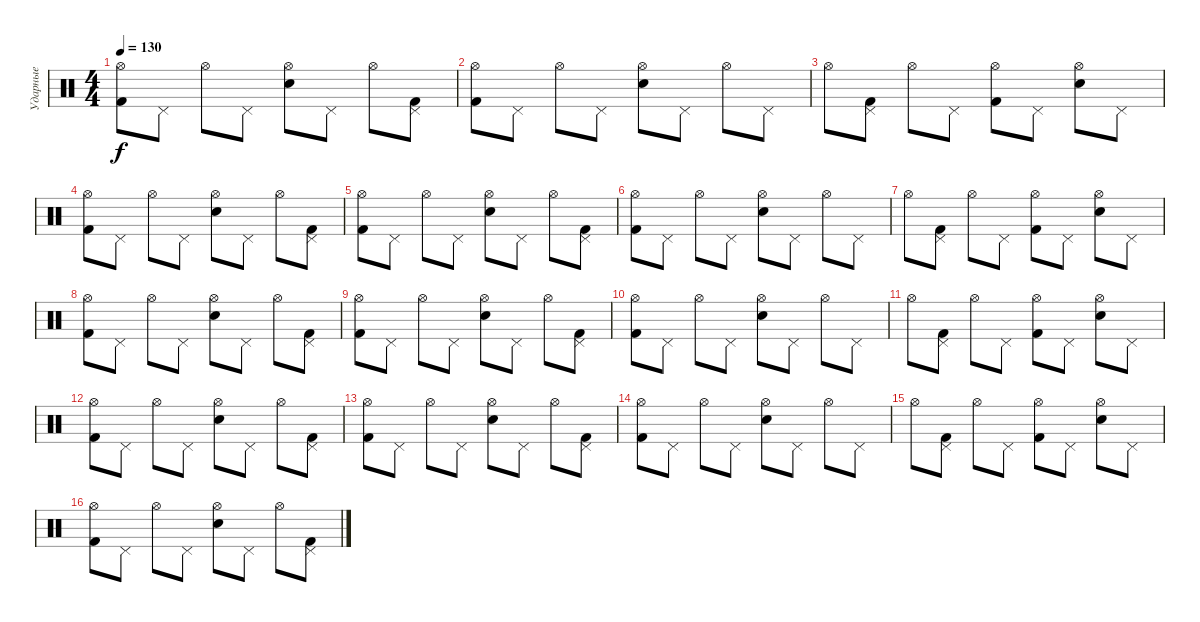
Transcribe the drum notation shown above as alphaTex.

\track ("Ударные" "Ударные") {instrument percussion}
\staff
\articulation defaults
\ts (4 4)
\tempo 130
\clef neutral
\ks c
("Kick (hit) 2" "Hi-Hat (open)").8{dy f} "Pedal Hi-Hat (hit)".8 "Hi-Hat (open)".8 "Pedal Hi-Hat (hit)".8 ("Snare (hit) 2" "Hi-Hat (open)").8 "Pedal Hi-Hat (hit)".8 "Hi-Hat (open)".8 ("Kick (hit) 2" "Pedal Hi-Hat (hit)").8 |
("Kick (hit) 2" "Hi-Hat (open)").8 "Pedal Hi-Hat (hit)".8 "Hi-Hat (open)".8 "Pedal Hi-Hat (hit)".8 ("Snare (hit) 2" "Hi-Hat (open)").8 "Pedal Hi-Hat (hit)".8 "Hi-Hat (open)".8 "Pedal Hi-Hat (hit)".8 |
"Hi-Hat (open)".8 ("Kick (hit) 2" "Pedal Hi-Hat (hit)").8 "Hi-Hat (open)".8 "Pedal Hi-Hat (hit)".8 ("Kick (hit) 2" "Hi-Hat (open)").8 "Pedal Hi-Hat (hit)".8 ("Snare (hit) 2" "Hi-Hat (open)").8 "Pedal Hi-Hat (hit)".8 |
("Kick (hit) 2" "Hi-Hat (open)").8 "Pedal Hi-Hat (hit)".8 "Hi-Hat (open)".8 "Pedal Hi-Hat (hit)".8 ("Snare (hit) 2" "Hi-Hat (open)").8 "Pedal Hi-Hat (hit)".8 "Hi-Hat (open)".8 ("Kick (hit) 2" "Pedal Hi-Hat (hit)").8 |
("Kick (hit) 2" "Hi-Hat (open)").8 "Pedal Hi-Hat (hit)".8 "Hi-Hat (open)".8 "Pedal Hi-Hat (hit)".8 ("Snare (hit) 2" "Hi-Hat (open)").8 "Pedal Hi-Hat (hit)".8 "Hi-Hat (open)".8 ("Kick (hit) 2" "Pedal Hi-Hat (hit)").8 |
("Kick (hit) 2" "Hi-Hat (open)").8 "Pedal Hi-Hat (hit)".8 "Hi-Hat (open)".8 "Pedal Hi-Hat (hit)".8 ("Snare (hit) 2" "Hi-Hat (open)").8 "Pedal Hi-Hat (hit)".8 "Hi-Hat (open)".8 "Pedal Hi-Hat (hit)".8 |
"Hi-Hat (open)".8 ("Kick (hit) 2" "Pedal Hi-Hat (hit)").8 "Hi-Hat (open)".8 "Pedal Hi-Hat (hit)".8 ("Kick (hit) 2" "Hi-Hat (open)").8 "Pedal Hi-Hat (hit)".8 ("Snare (hit) 2" "Hi-Hat (open)").8 "Pedal Hi-Hat (hit)".8 |
("Kick (hit) 2" "Hi-Hat (open)").8 "Pedal Hi-Hat (hit)".8 "Hi-Hat (open)".8 "Pedal Hi-Hat (hit)".8 ("Snare (hit) 2" "Hi-Hat (open)").8 "Pedal Hi-Hat (hit)".8 "Hi-Hat (open)".8 ("Kick (hit) 2" "Pedal Hi-Hat (hit)").8 |
("Kick (hit) 2" "Hi-Hat (open)").8 "Pedal Hi-Hat (hit)".8 "Hi-Hat (open)".8 "Pedal Hi-Hat (hit)".8 ("Snare (hit) 2" "Hi-Hat (open)").8 "Pedal Hi-Hat (hit)".8 "Hi-Hat (open)".8 ("Kick (hit) 2" "Pedal Hi-Hat (hit)").8 |
("Kick (hit) 2" "Hi-Hat (open)").8 "Pedal Hi-Hat (hit)".8 "Hi-Hat (open)".8 "Pedal Hi-Hat (hit)".8 ("Snare (hit) 2" "Hi-Hat (open)").8 "Pedal Hi-Hat (hit)".8 "Hi-Hat (open)".8 "Pedal Hi-Hat (hit)".8 |
"Hi-Hat (open)".8 ("Kick (hit) 2" "Pedal Hi-Hat (hit)").8 "Hi-Hat (open)".8 "Pedal Hi-Hat (hit)".8 ("Kick (hit) 2" "Hi-Hat (open)").8 "Pedal Hi-Hat (hit)".8 ("Snare (hit) 2" "Hi-Hat (open)").8 "Pedal Hi-Hat (hit)".8 |
("Kick (hit) 2" "Hi-Hat (open)").8 "Pedal Hi-Hat (hit)".8 "Hi-Hat (open)".8 "Pedal Hi-Hat (hit)".8 ("Snare (hit) 2" "Hi-Hat (open)").8 "Pedal Hi-Hat (hit)".8 "Hi-Hat (open)".8 ("Kick (hit) 2" "Pedal Hi-Hat (hit)").8 |
("Kick (hit) 2" "Hi-Hat (open)").8 "Pedal Hi-Hat (hit)".8 "Hi-Hat (open)".8 "Pedal Hi-Hat (hit)".8 ("Snare (hit) 2" "Hi-Hat (open)").8 "Pedal Hi-Hat (hit)".8 "Hi-Hat (open)".8 ("Kick (hit) 2" "Pedal Hi-Hat (hit)").8 |
("Kick (hit) 2" "Hi-Hat (open)").8 "Pedal Hi-Hat (hit)".8 "Hi-Hat (open)".8 "Pedal Hi-Hat (hit)".8 ("Snare (hit) 2" "Hi-Hat (open)").8 "Pedal Hi-Hat (hit)".8 "Hi-Hat (open)".8 "Pedal Hi-Hat (hit)".8 |
"Hi-Hat (open)".8 ("Kick (hit) 2" "Pedal Hi-Hat (hit)").8 "Hi-Hat (open)".8 "Pedal Hi-Hat (hit)".8 ("Kick (hit) 2" "Hi-Hat (open)").8 "Pedal Hi-Hat (hit)".8 ("Snare (hit) 2" "Hi-Hat (open)").8 "Pedal Hi-Hat (hit)".8 |
("Kick (hit) 2" "Hi-Hat (open)").8 "Pedal Hi-Hat (hit)".8 "Hi-Hat (open)".8 "Pedal Hi-Hat (hit)".8 ("Snare (hit) 2" "Hi-Hat (open)").8 "Pedal Hi-Hat (hit)".8 "Hi-Hat (open)".8 ("Kick (hit) 2" "Pedal Hi-Hat (hit)").8
